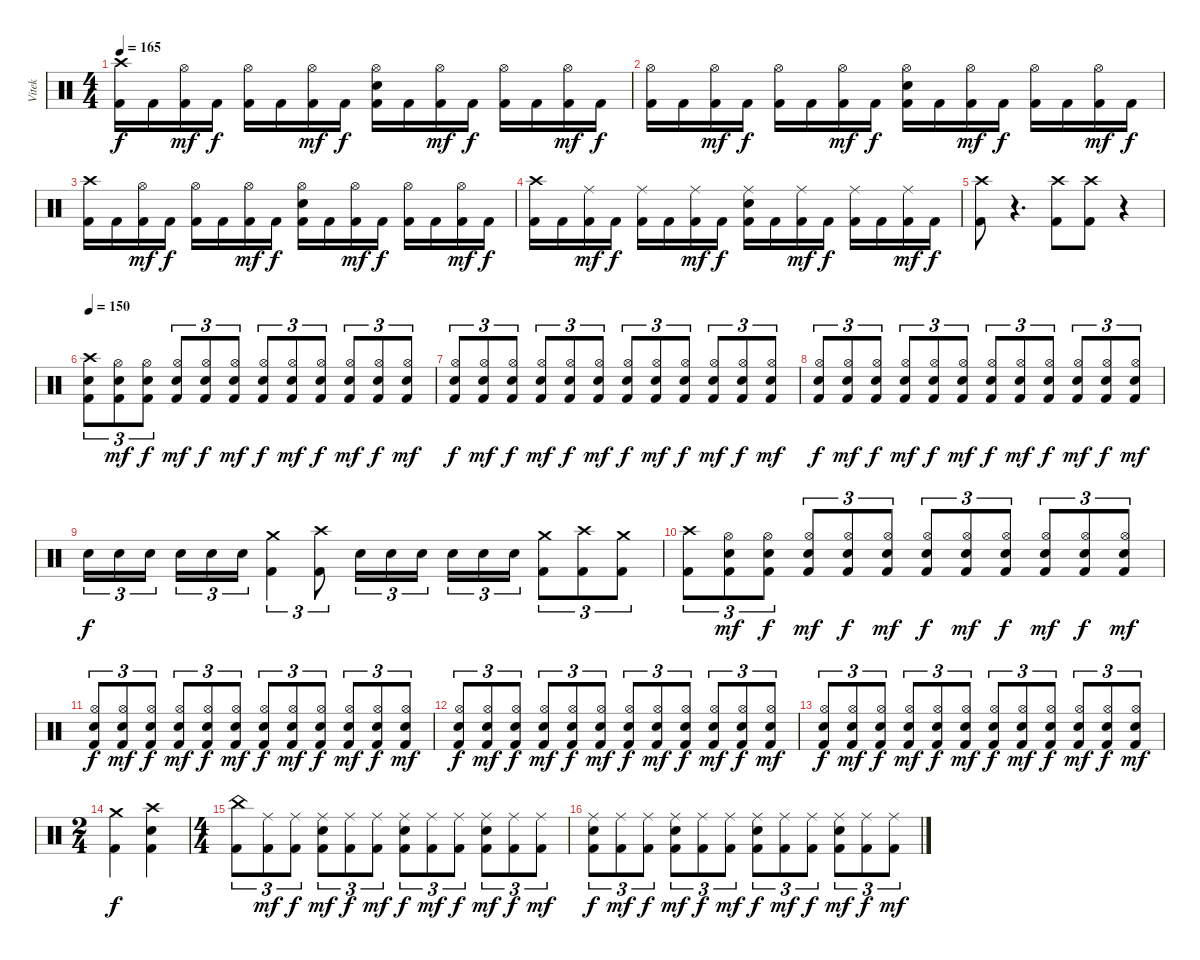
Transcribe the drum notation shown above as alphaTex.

\track ("Vitek" "Vitek") {instrument percussion}
\staff {score}
\articulation defaults
\ts (4 4)
\tempo 165
\clef neutral
\ks c
("Crash high (hit)" "Kick (hit) 2").16{dy f} "Kick (hit) 2".16 ("Hi-Hat (open)" "Kick (hit) 2").16{dy mf} "Kick (hit) 2".16{dy f} ("Hi-Hat (open)" "Kick (hit) 2").16 "Kick (hit) 2".16 ("Hi-Hat (open)" "Kick (hit) 2").16{dy mf} "Kick (hit) 2".16{dy f} ("Hi-Hat (open)" "Electric Snare (hit)" "Kick (hit) 2").16 "Kick (hit) 2".16 ("Hi-Hat (open)" "Kick (hit) 2").16{dy mf} "Kick (hit) 2".16{dy f} ("Hi-Hat (open)" "Kick (hit) 2").16 "Kick (hit) 2".16 ("Hi-Hat (open)" "Kick (hit) 2").16{dy mf} "Kick (hit) 2".16{dy f} |
("Hi-Hat (open)" "Kick (hit) 2").16 "Kick (hit) 2".16 ("Hi-Hat (open)" "Kick (hit) 2").16{dy mf} "Kick (hit) 2".16{dy f} ("Hi-Hat (open)" "Kick (hit) 2").16 "Kick (hit) 2".16 ("Hi-Hat (open)" "Kick (hit) 2").16{dy mf} "Kick (hit) 2".16{dy f} ("Hi-Hat (open)" "Electric Snare (hit)" "Kick (hit) 2").16 "Kick (hit) 2".16 ("Hi-Hat (open)" "Kick (hit) 2").16{dy mf} "Kick (hit) 2".16{dy f} ("Hi-Hat (open)" "Kick (hit) 2").16 "Kick (hit) 2".16 ("Hi-Hat (open)" "Kick (hit) 2").16{dy mf} "Kick (hit) 2".16{dy f} |
("Crash high (hit)" "Kick (hit) 2").16 "Kick (hit) 2".16 ("Hi-Hat (open)" "Kick (hit) 2").16{dy mf} "Kick (hit) 2".16{dy f} ("Hi-Hat (open)" "Kick (hit) 2").16 "Kick (hit) 2".16 ("Hi-Hat (open)" "Kick (hit) 2").16{dy mf} "Kick (hit) 2".16{dy f} ("Hi-Hat (open)" "Electric Snare (hit)" "Kick (hit) 2").16 "Kick (hit) 2".16 ("Hi-Hat (open)" "Kick (hit) 2").16{dy mf} "Kick (hit) 2".16{dy f} ("Hi-Hat (open)" "Kick (hit) 2").16 "Kick (hit) 2".16 ("Hi-Hat (open)" "Kick (hit) 2").16{dy mf} "Kick (hit) 2".16{dy f} |
("Crash high (hit)" "Kick (hit) 2").16 "Kick (hit) 2".16 ("Ride (middle)" "Kick (hit) 2").16{dy mf} "Kick (hit) 2".16{dy f} ("Ride (middle)" "Kick (hit) 2").16 "Kick (hit) 2".16 ("Ride (middle)" "Kick (hit) 2").16{dy mf} "Kick (hit) 2".16{dy f} ("Ride (middle)" "Electric Snare (hit)" "Kick (hit) 2").16 "Kick (hit) 2".16 ("Ride (middle)" "Kick (hit) 2").16{dy mf} "Kick (hit) 2".16{dy f} ("Ride (middle)" "Kick (hit) 2").16 "Kick (hit) 2".16 ("Ride (middle)" "Kick (hit) 2").16{dy mf} "Kick (hit) 2".16{dy f} |
("Crash high (hit)" "Kick (hit) 2").8 r.4{d} ("Crash high (hit)" "Kick (hit) 2").8 ("Crash high (hit)" "Kick (hit) 2").8 r.4 |
\tempo 150
("Crash high (hit)" "Electric Snare (hit)" "Kick (hit) 2").8{tu (3 2)} ("Hi-Hat (open)" "Electric Snare (hit)" "Kick (hit) 2").8{tu (3 2) dy mf} ("Hi-Hat (open)" "Electric Snare (hit)" "Kick (hit) 2").8{tu (3 2) dy f} ("Hi-Hat (open)" "Electric Snare (hit)" "Kick (hit) 2").8{tu (3 2) dy mf} ("Hi-Hat (open)" "Electric Snare (hit)" "Kick (hit) 2").8{tu (3 2) dy f} ("Hi-Hat (open)" "Electric Snare (hit)" "Kick (hit) 2").8{tu (3 2) dy mf} ("Hi-Hat (open)" "Electric Snare (hit)" "Kick (hit) 2").8{tu (3 2) dy f} ("Hi-Hat (open)" "Electric Snare (hit)" "Kick (hit) 2").8{tu (3 2) dy mf} ("Hi-Hat (open)" "Electric Snare (hit)" "Kick (hit) 2").8{tu (3 2) dy f} ("Hi-Hat (open)" "Electric Snare (hit)" "Kick (hit) 2").8{tu (3 2) dy mf} ("Hi-Hat (open)" "Electric Snare (hit)" "Kick (hit) 2").8{tu (3 2) dy f} ("Hi-Hat (open)" "Electric Snare (hit)" "Kick (hit) 2").8{tu (3 2) dy mf} |
("Hi-Hat (open)" "Electric Snare (hit)" "Kick (hit) 2").8{tu (3 2) dy f} ("Hi-Hat (open)" "Electric Snare (hit)" "Kick (hit) 2").8{tu (3 2) dy mf} ("Hi-Hat (open)" "Electric Snare (hit)" "Kick (hit) 2").8{tu (3 2) dy f} ("Hi-Hat (open)" "Electric Snare (hit)" "Kick (hit) 2").8{tu (3 2) dy mf} ("Hi-Hat (open)" "Electric Snare (hit)" "Kick (hit) 2").8{tu (3 2) dy f} ("Hi-Hat (open)" "Electric Snare (hit)" "Kick (hit) 2").8{tu (3 2) dy mf} ("Hi-Hat (open)" "Electric Snare (hit)" "Kick (hit) 2").8{tu (3 2) dy f} ("Hi-Hat (open)" "Electric Snare (hit)" "Kick (hit) 2").8{tu (3 2) dy mf} ("Hi-Hat (open)" "Electric Snare (hit)" "Kick (hit) 2").8{tu (3 2) dy f} ("Hi-Hat (open)" "Electric Snare (hit)" "Kick (hit) 2").8{tu (3 2) dy mf} ("Hi-Hat (open)" "Electric Snare (hit)" "Kick (hit) 2").8{tu (3 2) dy f} ("Hi-Hat (open)" "Electric Snare (hit)" "Kick (hit) 2").8{tu (3 2) dy mf} |
("Hi-Hat (open)" "Electric Snare (hit)" "Kick (hit) 2").8{tu (3 2) dy f} ("Hi-Hat (open)" "Electric Snare (hit)" "Kick (hit) 2").8{tu (3 2) dy mf} ("Hi-Hat (open)" "Electric Snare (hit)" "Kick (hit) 2").8{tu (3 2) dy f} ("Hi-Hat (open)" "Electric Snare (hit)" "Kick (hit) 2").8{tu (3 2) dy mf} ("Hi-Hat (open)" "Electric Snare (hit)" "Kick (hit) 2").8{tu (3 2) dy f} ("Hi-Hat (open)" "Electric Snare (hit)" "Kick (hit) 2").8{tu (3 2) dy mf} ("Hi-Hat (open)" "Electric Snare (hit)" "Kick (hit) 2").8{tu (3 2) dy f} ("Hi-Hat (open)" "Electric Snare (hit)" "Kick (hit) 2").8{tu (3 2) dy mf} ("Hi-Hat (open)" "Electric Snare (hit)" "Kick (hit) 2").8{tu (3 2) dy f} ("Hi-Hat (open)" "Electric Snare (hit)" "Kick (hit) 2").8{tu (3 2) dy mf} ("Hi-Hat (open)" "Electric Snare (hit)" "Kick (hit) 2").8{tu (3 2) dy f} ("Hi-Hat (open)" "Electric Snare (hit)" "Kick (hit) 2").8{tu (3 2) dy mf} |
"Electric Snare (hit)".16{tu (3 2) dy f} "Electric Snare (hit)".16{tu (3 2)} "Electric Snare (hit)".16{tu (3 2) beam splitsecondary} "Electric Snare (hit)".16{tu (3 2)} "Electric Snare (hit)".16{tu (3 2)} "Electric Snare (hit)".16{tu (3 2)} ("Crash medium (hit)" "Kick (hit) 2").4{tu (3 2)} ("Crash high (hit)" "Kick (hit) 2").8{tu (3 2)} "Electric Snare (hit)".16{tu (3 2)} "Electric Snare (hit)".16{tu (3 2)} "Electric Snare (hit)".16{tu (3 2) beam splitsecondary} "Electric Snare (hit)".16{tu (3 2)} "Electric Snare (hit)".16{tu (3 2)} "Electric Snare (hit)".16{tu (3 2)} ("Crash medium (hit)" "Kick (hit) 2").8{tu (3 2)} ("Crash high (hit)" "Kick (hit) 2").8{tu (3 2)} ("Crash medium (hit)" "Kick (hit) 2").8{tu (3 2)} |
("Crash high (hit)" "Kick (hit) 2").8{tu (3 2)} ("Hi-Hat (open)" "Electric Snare (hit)" "Kick (hit) 2").8{tu (3 2) dy mf} ("Hi-Hat (open)" "Electric Snare (hit)" "Kick (hit) 2").8{tu (3 2) dy f} ("Hi-Hat (open)" "Electric Snare (hit)" "Kick (hit) 2").8{tu (3 2) dy mf} ("Hi-Hat (open)" "Electric Snare (hit)" "Kick (hit) 2").8{tu (3 2) dy f} ("Hi-Hat (open)" "Electric Snare (hit)" "Kick (hit) 2").8{tu (3 2) dy mf} ("Hi-Hat (open)" "Electric Snare (hit)" "Kick (hit) 2").8{tu (3 2) dy f} ("Hi-Hat (open)" "Electric Snare (hit)" "Kick (hit) 2").8{tu (3 2) dy mf} ("Hi-Hat (open)" "Electric Snare (hit)" "Kick (hit) 2").8{tu (3 2) dy f} ("Hi-Hat (open)" "Electric Snare (hit)" "Kick (hit) 2").8{tu (3 2) dy mf} ("Hi-Hat (open)" "Electric Snare (hit)" "Kick (hit) 2").8{tu (3 2) dy f} ("Hi-Hat (open)" "Electric Snare (hit)" "Kick (hit) 2").8{tu (3 2) dy mf} |
("Hi-Hat (open)" "Electric Snare (hit)" "Kick (hit) 2").8{tu (3 2) dy f} ("Hi-Hat (open)" "Electric Snare (hit)" "Kick (hit) 2").8{tu (3 2) dy mf} ("Hi-Hat (open)" "Electric Snare (hit)" "Kick (hit) 2").8{tu (3 2) dy f} ("Hi-Hat (open)" "Electric Snare (hit)" "Kick (hit) 2").8{tu (3 2) dy mf} ("Hi-Hat (open)" "Electric Snare (hit)" "Kick (hit) 2").8{tu (3 2) dy f} ("Hi-Hat (open)" "Electric Snare (hit)" "Kick (hit) 2").8{tu (3 2) dy mf} ("Hi-Hat (open)" "Electric Snare (hit)" "Kick (hit) 2").8{tu (3 2) dy f} ("Hi-Hat (open)" "Electric Snare (hit)" "Kick (hit) 2").8{tu (3 2) dy mf} ("Hi-Hat (open)" "Electric Snare (hit)" "Kick (hit) 2").8{tu (3 2) dy f} ("Hi-Hat (open)" "Electric Snare (hit)" "Kick (hit) 2").8{tu (3 2) dy mf} ("Hi-Hat (open)" "Electric Snare (hit)" "Kick (hit) 2").8{tu (3 2) dy f} ("Hi-Hat (open)" "Electric Snare (hit)" "Kick (hit) 2").8{tu (3 2) dy mf} |
("Hi-Hat (open)" "Electric Snare (hit)" "Kick (hit) 2").8{tu (3 2) dy f} ("Hi-Hat (open)" "Electric Snare (hit)" "Kick (hit) 2").8{tu (3 2) dy mf} ("Hi-Hat (open)" "Electric Snare (hit)" "Kick (hit) 2").8{tu (3 2) dy f} ("Hi-Hat (open)" "Electric Snare (hit)" "Kick (hit) 2").8{tu (3 2) dy mf} ("Hi-Hat (open)" "Electric Snare (hit)" "Kick (hit) 2").8{tu (3 2) dy f} ("Hi-Hat (open)" "Electric Snare (hit)" "Kick (hit) 2").8{tu (3 2) dy mf} ("Hi-Hat (open)" "Electric Snare (hit)" "Kick (hit) 2").8{tu (3 2) dy f} ("Hi-Hat (open)" "Electric Snare (hit)" "Kick (hit) 2").8{tu (3 2) dy mf} ("Hi-Hat (open)" "Electric Snare (hit)" "Kick (hit) 2").8{tu (3 2) dy f} ("Hi-Hat (open)" "Electric Snare (hit)" "Kick (hit) 2").8{tu (3 2) dy mf} ("Hi-Hat (open)" "Electric Snare (hit)" "Kick (hit) 2").8{tu (3 2) dy f} ("Hi-Hat (open)" "Electric Snare (hit)" "Kick (hit) 2").8{tu (3 2) dy mf} |
("Hi-Hat (open)" "Electric Snare (hit)" "Kick (hit) 2").8{tu (3 2) dy f} ("Hi-Hat (open)" "Electric Snare (hit)" "Kick (hit) 2").8{tu (3 2) dy mf} ("Hi-Hat (open)" "Electric Snare (hit)" "Kick (hit) 2").8{tu (3 2) dy f} ("Hi-Hat (open)" "Electric Snare (hit)" "Kick (hit) 2").8{tu (3 2) dy mf} ("Hi-Hat (open)" "Electric Snare (hit)" "Kick (hit) 2").8{tu (3 2) dy f} ("Hi-Hat (open)" "Electric Snare (hit)" "Kick (hit) 2").8{tu (3 2) dy mf} ("Hi-Hat (open)" "Electric Snare (hit)" "Kick (hit) 2").8{tu (3 2) dy f} ("Hi-Hat (open)" "Electric Snare (hit)" "Kick (hit) 2").8{tu (3 2) dy mf} ("Hi-Hat (open)" "Electric Snare (hit)" "Kick (hit) 2").8{tu (3 2) dy f} ("Hi-Hat (open)" "Electric Snare (hit)" "Kick (hit) 2").8{tu (3 2) dy mf} ("Hi-Hat (open)" "Electric Snare (hit)" "Kick (hit) 2").8{tu (3 2) dy f} ("Hi-Hat (open)" "Electric Snare (hit)" "Kick (hit) 2").8{tu (3 2) dy mf} |
\ts (2 4)
("Crash medium (hit)" "Kick (hit) 2").4{dy f} ("Crash high (hit)" "Electric Snare (hit)" "Kick (hit) 2").4 |
\ts (4 4)
("China (hit)" "Kick (hit) 2").8{tu (3 2)} ("Ride (middle)" "Kick (hit) 2").8{tu (3 2) dy mf} ("Ride (middle)" "Kick (hit) 2").8{tu (3 2) dy f} ("Ride (middle)" "Electric Snare (hit)" "Kick (hit) 2").8{tu (3 2) dy mf} ("Ride (middle)" "Kick (hit) 2").8{tu (3 2) dy f} ("Ride (middle)" "Kick (hit) 2").8{tu (3 2) dy mf} ("Ride (middle)" "Electric Snare (hit)" "Kick (hit) 2").8{tu (3 2) dy f} ("Ride (middle)" "Kick (hit) 2").8{tu (3 2) dy mf} ("Ride (middle)" "Kick (hit) 2").8{tu (3 2) dy f} ("Ride (middle)" "Electric Snare (hit)" "Kick (hit) 2").8{tu (3 2) dy mf} ("Ride (middle)" "Kick (hit) 2").8{tu (3 2) dy f} ("Ride (middle)" "Kick (hit) 2").8{tu (3 2) dy mf} |
("Ride (middle)" "Electric Snare (hit)" "Kick (hit) 2").8{tu (3 2) dy f} ("Ride (middle)" "Kick (hit) 2").8{tu (3 2) dy mf} ("Ride (middle)" "Kick (hit) 2").8{tu (3 2) dy f} ("Ride (middle)" "Electric Snare (hit)" "Kick (hit) 2").8{tu (3 2) dy mf} ("Ride (middle)" "Kick (hit) 2").8{tu (3 2) dy f} ("Ride (middle)" "Kick (hit) 2").8{tu (3 2) dy mf} ("Ride (middle)" "Electric Snare (hit)" "Kick (hit) 2").8{tu (3 2) dy f} ("Ride (middle)" "Kick (hit) 2").8{tu (3 2) dy mf} ("Ride (middle)" "Kick (hit) 2").8{tu (3 2) dy f} ("Ride (middle)" "Electric Snare (hit)" "Kick (hit) 2").8{tu (3 2) dy mf} ("Ride (middle)" "Kick (hit) 2").8{tu (3 2) dy f} ("Ride (middle)" "Kick (hit) 2").8{tu (3 2) dy mf}
